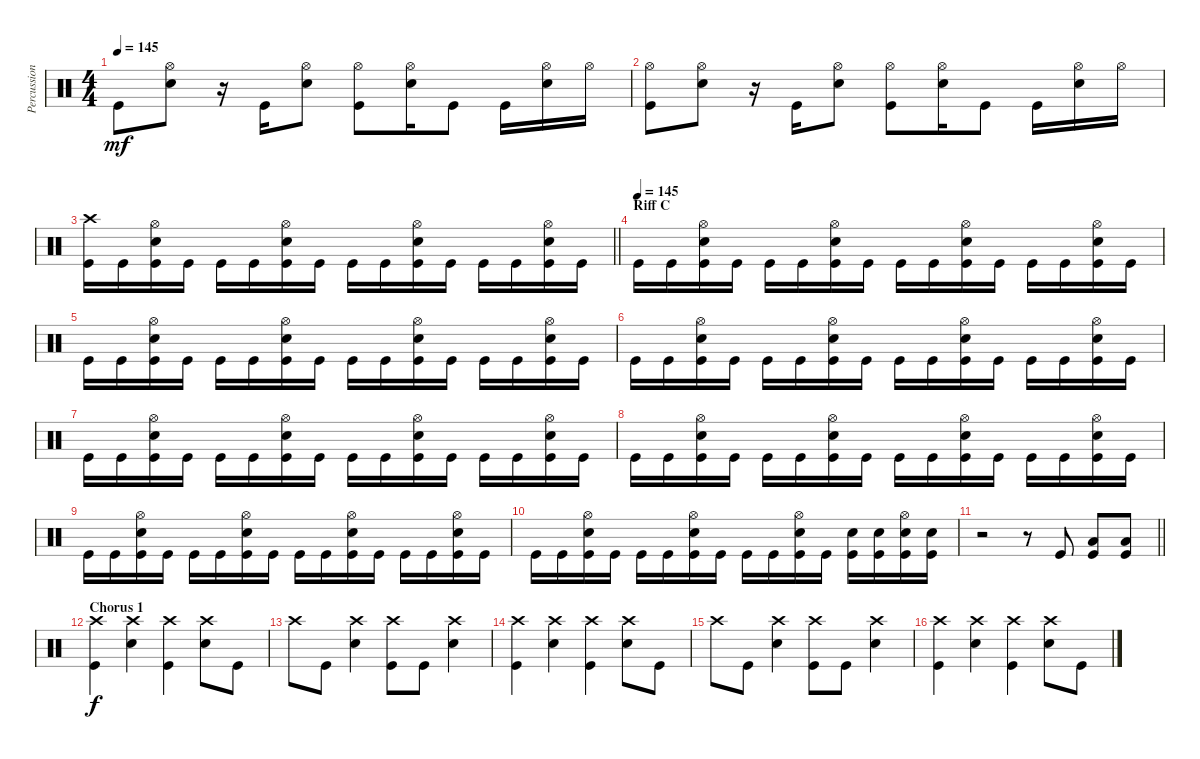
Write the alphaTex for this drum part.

\track ("Percussion" "Percussion") {instrument percussion}
\staff {score}
\articulation defaults
\ts (4 4)
\tempo 145
\clef neutral
\ks c "Kick (hit)".8{dy mf}
("Snare (hit) 2" "Hi-Hat (open)").8 r.16 "Kick (hit)".16 ("Snare (hit) 2" "Hi-Hat (open)").8 ("Hi-Hat (open)" "Kick (hit)").8 ("Snare (hit) 2" "Hi-Hat (open)").16 "Kick (hit)".8 "Kick (hit)".16 ("Snare (hit) 2" "Hi-Hat (open)").16 "Hi-Hat (open)".16 |
("Hi-Hat (open)" "Kick (hit)").8 ("Snare (hit) 2" "Hi-Hat (open)").8 r.16 "Kick (hit)".16 ("Snare (hit) 2" "Hi-Hat (open)").8 ("Hi-Hat (open)" "Kick (hit)").8 ("Snare (hit) 2" "Hi-Hat (open)").16 "Kick (hit)".8 "Kick (hit)".16 ("Snare (hit) 2" "Hi-Hat (open)").16 "Hi-Hat (open)".16 |
\barLineRight lightlight
("Crash high (hit)" "Kick (hit)").16 "Kick (hit)".16 ("Snare (hit) 2" "Hi-Hat (open)" "Kick (hit)").16 "Kick (hit)".16 "Kick (hit)".16 "Kick (hit)".16 ("Snare (hit) 2" "Hi-Hat (open)" "Kick (hit)").16 "Kick (hit)".16 "Kick (hit)".16 "Kick (hit)".16 ("Snare (hit) 2" "Hi-Hat (open)" "Kick (hit)").16 "Kick (hit)".16 "Kick (hit)".16 "Kick (hit)".16 ("Snare (hit) 2" "Hi-Hat (open)" "Kick (hit)").16 "Kick (hit)".16 |
\section ("" "Riff C")
\tempo (145)
"Kick (hit)".16 "Kick (hit)".16 ("Snare (hit) 2" "Hi-Hat (open)" "Kick (hit)").16 "Kick (hit)".16 "Kick (hit)".16 "Kick (hit)".16 ("Snare (hit) 2" "Hi-Hat (open)" "Kick (hit)").16 "Kick (hit)".16 "Kick (hit)".16 "Kick (hit)".16 ("Snare (hit) 2" "Hi-Hat (open)" "Kick (hit)").16 "Kick (hit)".16 "Kick (hit)".16 "Kick (hit)".16 ("Snare (hit) 2" "Hi-Hat (open)" "Kick (hit)").16 "Kick (hit)".16 |
"Kick (hit)".16 "Kick (hit)".16 ("Snare (hit) 2" "Hi-Hat (open)" "Kick (hit)").16 "Kick (hit)".16 "Kick (hit)".16 "Kick (hit)".16 ("Snare (hit) 2" "Hi-Hat (open)" "Kick (hit)").16 "Kick (hit)".16 "Kick (hit)".16 "Kick (hit)".16 ("Snare (hit) 2" "Hi-Hat (open)" "Kick (hit)").16 "Kick (hit)".16 "Kick (hit)".16 "Kick (hit)".16 ("Snare (hit) 2" "Hi-Hat (open)" "Kick (hit)").16 "Kick (hit)".16 |
"Kick (hit)".16 "Kick (hit)".16 ("Snare (hit) 2" "Hi-Hat (open)" "Kick (hit)").16 "Kick (hit)".16 "Kick (hit)".16 "Kick (hit)".16 ("Snare (hit) 2" "Hi-Hat (open)" "Kick (hit)").16 "Kick (hit)".16 "Kick (hit)".16 "Kick (hit)".16 ("Snare (hit) 2" "Hi-Hat (open)" "Kick (hit)").16 "Kick (hit)".16 "Kick (hit)".16 "Kick (hit)".16 ("Snare (hit) 2" "Hi-Hat (open)" "Kick (hit)").16 "Kick (hit)".16 |
"Kick (hit)".16 "Kick (hit)".16 ("Snare (hit) 2" "Hi-Hat (open)" "Kick (hit)").16 "Kick (hit)".16 "Kick (hit)".16 "Kick (hit)".16 ("Snare (hit) 2" "Hi-Hat (open)" "Kick (hit)").16 "Kick (hit)".16 "Kick (hit)".16 "Kick (hit)".16 ("Snare (hit) 2" "Hi-Hat (open)" "Kick (hit)").16 "Kick (hit)".16 "Kick (hit)".16 "Kick (hit)".16 ("Snare (hit) 2" "Hi-Hat (open)" "Kick (hit)").16 "Kick (hit)".16 |
"Kick (hit)".16 "Kick (hit)".16 ("Snare (hit) 2" "Hi-Hat (open)" "Kick (hit)").16 "Kick (hit)".16 "Kick (hit)".16 "Kick (hit)".16 ("Snare (hit) 2" "Hi-Hat (open)" "Kick (hit)").16 "Kick (hit)".16 "Kick (hit)".16 "Kick (hit)".16 ("Snare (hit) 2" "Hi-Hat (open)" "Kick (hit)").16 "Kick (hit)".16 "Kick (hit)".16 "Kick (hit)".16 ("Snare (hit) 2" "Hi-Hat (open)" "Kick (hit)").16 "Kick (hit)".16 |
"Kick (hit)".16 "Kick (hit)".16 ("Snare (hit) 2" "Hi-Hat (open)" "Kick (hit)").16 "Kick (hit)".16 "Kick (hit)".16 "Kick (hit)".16 ("Snare (hit) 2" "Hi-Hat (open)" "Kick (hit)").16 "Kick (hit)".16 "Kick (hit)".16 "Kick (hit)".16 ("Snare (hit) 2" "Hi-Hat (open)" "Kick (hit)").16 "Kick (hit)".16 "Kick (hit)".16 "Kick (hit)".16 ("Snare (hit) 2" "Hi-Hat (open)" "Kick (hit)").16 "Kick (hit)".16 |
"Kick (hit)".16 "Kick (hit)".16 ("Snare (hit) 2" "Hi-Hat (open)" "Kick (hit)").16 "Kick (hit)".16 "Kick (hit)".16 "Kick (hit)".16 ("Snare (hit) 2" "Hi-Hat (open)" "Kick (hit)").16 "Kick (hit)".16 "Kick (hit)".16 "Kick (hit)".16 ("Snare (hit) 2" "Hi-Hat (open)" "Kick (hit)").16 "Kick (hit)".16 ("Snare (hit) 2" "Kick (hit)").16 ("Snare (hit) 2" "Kick (hit)").16 ("Snare (hit) 2" "Hi-Hat (open)" "Kick (hit)").16 ("Snare (hit) 2" "Kick (hit)").16 |
\barLineRight lightlight
r.2 r.8 "Kick (hit)".8 ("Low Floor Tom (hit)" "Kick (hit)").8 ("Low Floor Tom (hit)" "Kick (hit)").8 |
\section ("" "Chorus 1")
("Crash high (hit)" "Kick (hit)").4{dy f} ("Crash high (hit)" "Snare (hit) 2").4 ("Crash high (hit)" "Kick (hit)").4 ("Crash high (hit)" "Snare (hit) 2").8 "Kick (hit)".8 |
"Crash high (hit)".8 "Kick (hit)".8 ("Crash high (hit)" "Snare (hit) 2").4 ("Crash high (hit)" "Kick (hit)").8 "Kick (hit)".8 ("Crash high (hit)" "Snare (hit) 2").4 |
("Crash high (hit)" "Kick (hit)").4 ("Crash high (hit)" "Snare (hit) 2").4 ("Crash high (hit)" "Kick (hit)").4 ("Crash high (hit)" "Snare (hit) 2").8 "Kick (hit)".8 |
"Crash high (hit)".8 "Kick (hit)".8 ("Crash high (hit)" "Snare (hit) 2").4 ("Crash high (hit)" "Kick (hit)").8 "Kick (hit)".8 ("Crash high (hit)" "Snare (hit) 2").4 |
("Crash high (hit)" "Kick (hit)").4 ("Crash high (hit)" "Snare (hit) 2").4 ("Crash high (hit)" "Kick (hit)").4 ("Crash high (hit)" "Snare (hit) 2").8 "Kick (hit)".8
